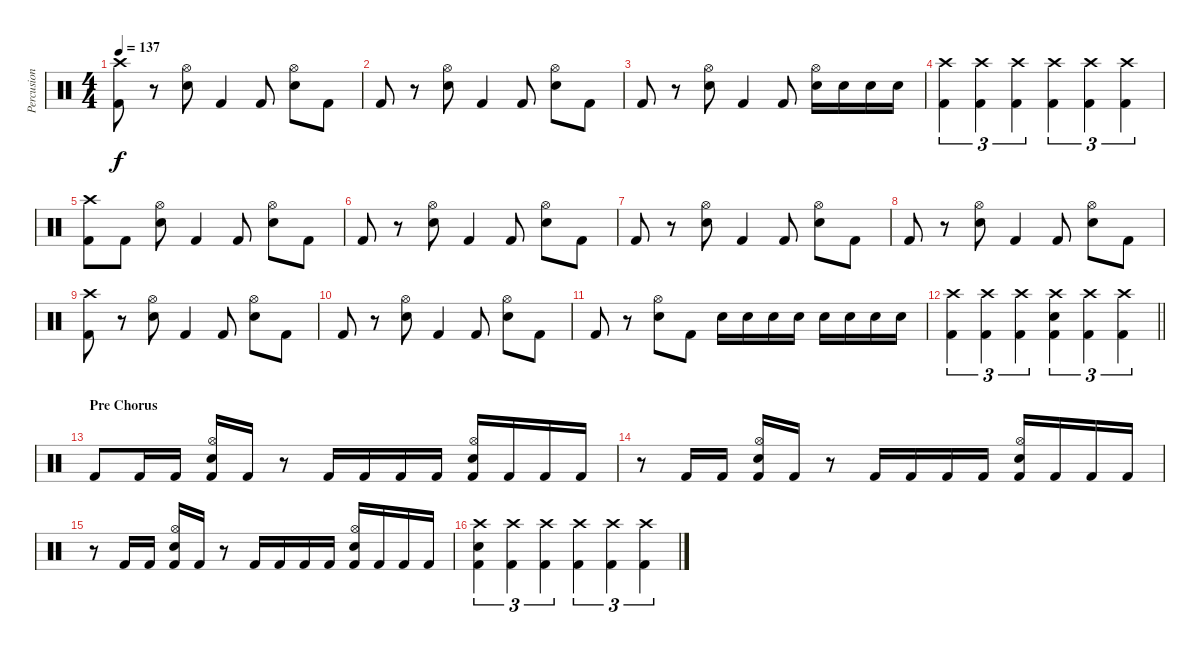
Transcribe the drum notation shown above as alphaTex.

\track ("Percusion" "Percusion") {instrument percussion}
\staff {score}
\articulation defaults
\ts (4 4)
\tempo 137
\clef neutral
\ks c
("Crash high (hit)" "Kick (hit) 2").8{dy f} r.8 ("Hi-Hat (open)" "Snare (hit) 2").8 "Kick (hit) 2".4 "Kick (hit) 2".8 ("Hi-Hat (open)" "Snare (hit) 2").8 "Kick (hit) 2".8 |
"Kick (hit) 2".8 r.8 ("Hi-Hat (open)" "Snare (hit) 2").8 "Kick (hit) 2".4 "Kick (hit) 2".8 ("Hi-Hat (open)" "Snare (hit) 2").8 "Kick (hit) 2".8 |
"Kick (hit) 2".8 r.8 ("Hi-Hat (open)" "Snare (hit) 2").8 "Kick (hit) 2".4 "Kick (hit) 2".8 ("Hi-Hat (open)" "Snare (hit) 2").16 "Snare (hit) 2".16 "Snare (hit) 2".16 "Snare (hit) 2".16 |
("Crash high (hit)" "Kick (hit) 2").4{tu (3 2)} ("Crash high (hit)" "Kick (hit) 2").4{tu (3 2)} ("Crash high (hit)" "Kick (hit) 2").4{tu (3 2)} ("Crash high (hit)" "Kick (hit) 2").4{tu (3 2)} ("Crash high (hit)" "Kick (hit) 2").4{tu (3 2)} ("Crash high (hit)" "Kick (hit) 2").4{tu (3 2)} |
("Crash high (hit)" "Kick (hit) 2").8 "Kick (hit) 2".8 ("Hi-Hat (open)" "Snare (hit) 2").8 "Kick (hit) 2".4 "Kick (hit) 2".8 ("Hi-Hat (open)" "Snare (hit) 2").8 "Kick (hit) 2".8 |
"Kick (hit) 2".8 r.8 ("Hi-Hat (open)" "Snare (hit) 2").8 "Kick (hit) 2".4 "Kick (hit) 2".8 ("Hi-Hat (open)" "Snare (hit) 2").8 "Kick (hit) 2".8 |
"Kick (hit) 2".8 r.8 ("Hi-Hat (open)" "Snare (hit) 2").8 "Kick (hit) 2".4 "Kick (hit) 2".8 ("Hi-Hat (open)" "Snare (hit) 2").8 "Kick (hit) 2".8 |
"Kick (hit) 2".8 r.8 ("Hi-Hat (open)" "Snare (hit) 2").8 "Kick (hit) 2".4 "Kick (hit) 2".8 ("Hi-Hat (open)" "Snare (hit) 2").8 "Kick (hit) 2".8 |
("Crash high (hit)" "Kick (hit) 2").8 r.8 ("Hi-Hat (open)" "Snare (hit) 2").8 "Kick (hit) 2".4 "Kick (hit) 2".8 ("Hi-Hat (open)" "Snare (hit) 2").8 "Kick (hit) 2".8 |
"Kick (hit) 2".8 r.8 ("Hi-Hat (open)" "Snare (hit) 2").8 "Kick (hit) 2".4 "Kick (hit) 2".8 ("Hi-Hat (open)" "Snare (hit) 2").8 "Kick (hit) 2".8 |
"Kick (hit) 2".8 r.8 ("Hi-Hat (open)" "Snare (hit) 2").8 "Kick (hit) 2".8 "Snare (hit) 2".16 "Snare (hit) 2".16 "Snare (hit) 2".16 "Snare (hit) 2".16 "Snare (hit) 2".16 "Snare (hit) 2".16 "Snare (hit) 2".16 "Snare (hit) 2".16 |
\barLineRight lightlight
("Crash high (hit)" "Kick (hit) 2").4{tu (3 2)} ("Crash high (hit)" "Kick (hit) 2").4{tu (3 2)} ("Crash high (hit)" "Kick (hit) 2").4{tu (3 2)} ("Crash high (hit)" "Snare (hit) 2" "Kick (hit) 2").4{tu (3 2)} ("Crash high (hit)" "Kick (hit) 2").4{tu (3 2)} ("Crash high (hit)" "Kick (hit) 2").4{tu (3 2)} |
\section ("" "Pre Chorus")
"Kick (hit) 2".8 "Kick (hit) 2".16 "Kick (hit) 2".16 ("Hi-Hat (open)" "Snare (hit) 2" "Kick (hit) 2").16 "Kick (hit) 2".16 r.8 "Kick (hit) 2".16 "Kick (hit) 2".16 "Kick (hit) 2".16 "Kick (hit) 2".16 ("Hi-Hat (open)" "Snare (hit) 2" "Kick (hit) 2").16 "Kick (hit) 2".16 "Kick (hit) 2".16 "Kick (hit) 2".16 |
r.8 "Kick (hit) 2".16 "Kick (hit) 2".16 ("Hi-Hat (open)" "Snare (hit) 2" "Kick (hit) 2").16 "Kick (hit) 2".16 r.8 "Kick (hit) 2".16 "Kick (hit) 2".16 "Kick (hit) 2".16 "Kick (hit) 2".16 ("Hi-Hat (open)" "Snare (hit) 2" "Kick (hit) 2").16 "Kick (hit) 2".16 "Kick (hit) 2".16 "Kick (hit) 2".16 |
r.8 "Kick (hit) 2".16 "Kick (hit) 2".16 ("Hi-Hat (open)" "Snare (hit) 2" "Kick (hit) 2").16 "Kick (hit) 2".16 r.8 "Kick (hit) 2".16 "Kick (hit) 2".16 "Kick (hit) 2".16 "Kick (hit) 2".16 ("Hi-Hat (open)" "Snare (hit) 2" "Kick (hit) 2").16 "Kick (hit) 2".16 "Kick (hit) 2".16 "Kick (hit) 2".16 |
("Crash high (hit)" "Snare (hit) 2" "Kick (hit) 2").4{tu (3 2)} ("Crash high (hit)" "Kick (hit) 2").4{tu (3 2)} ("Crash high (hit)" "Kick (hit) 2").4{tu (3 2)} ("Crash high (hit)" "Kick (hit) 2").4{tu (3 2)} ("Crash high (hit)" "Kick (hit) 2").4{tu (3 2)} ("Crash high (hit)" "Kick (hit) 2").4{tu (3 2)}
